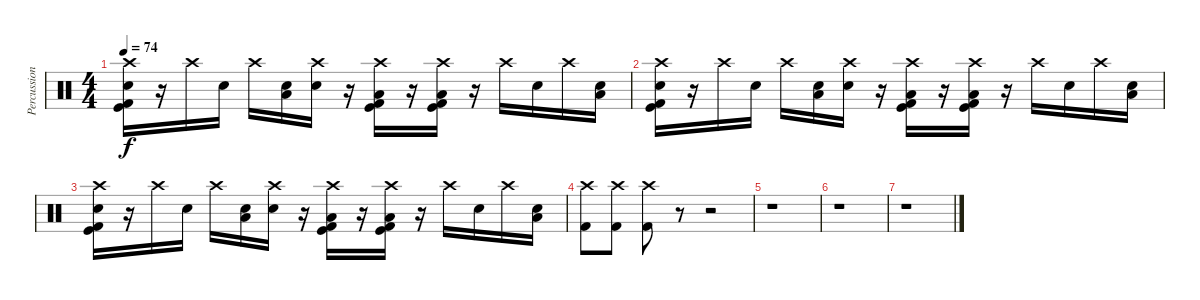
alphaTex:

\track ("Percussions" "Percussion") {instrument percussion}
\staff {score}
\articulation defaults
\ts (4 4)
\tempo 74
\clef neutral
\ks c
("Crash high (hit)" "Snare (hit) 2" "Kick (hit) 2" "Kick (hit)").16{dy f} r.16 "Crash high (hit)".16 "Electric Snare (hit)".16 "Crash high (hit)".16 ("Low Tom (hit)" "Snare (hit) 2").16 ("Crash high (hit)" "Electric Snare (hit)").16 r.16 ("Crash high (hit)" "Kick (hit)" "Low Tom (hit)" "Kick (hit) 2").16 r.16 ("Crash high (hit)" "Kick (hit)" "Low Tom (hit)" "Kick (hit) 2").16 r.16 "Crash high (hit)".16 "Electric Snare (hit)".16 "Crash high (hit)".16 ("Low Tom (hit)" "Snare (hit) 2").16 |
("Crash high (hit)" "Snare (hit) 2" "Kick (hit) 2" "Kick (hit)").16 r.16 "Crash high (hit)".16 "Electric Snare (hit)".16 "Crash high (hit)".16 ("Low Tom (hit)" "Snare (hit) 2").16 ("Crash high (hit)" "Electric Snare (hit)").16 r.16 ("Crash high (hit)" "Kick (hit)" "Low Tom (hit)" "Kick (hit) 2").16 r.16 ("Crash high (hit)" "Kick (hit)" "Low Tom (hit)" "Kick (hit) 2").16 r.16 "Crash high (hit)".16 "Electric Snare (hit)".16 "Crash high (hit)".16 ("Low Tom (hit)" "Snare (hit) 2").16 |
("Crash high (hit)" "Snare (hit) 2" "Kick (hit) 2" "Kick (hit)").16 r.16 "Crash high (hit)".16 "Electric Snare (hit)".16 "Crash high (hit)".16 ("Low Tom (hit)" "Snare (hit) 2").16 ("Crash high (hit)" "Electric Snare (hit)").16 r.16 ("Crash high (hit)" "Kick (hit)" "Low Tom (hit)" "Kick (hit) 2").16 r.16 ("Crash high (hit)" "Kick (hit)" "Low Tom (hit)" "Kick (hit) 2").16 r.16 "Crash high (hit)".16 "Electric Snare (hit)".16 "Crash high (hit)".16 ("Low Tom (hit)" "Snare (hit) 2").16 |
("Crash high (hit)" "Kick (hit) 2").8 ("Crash high (hit)" "Kick (hit) 2").8 ("Crash high (hit)" "Kick (hit) 2").8 r.8 r.2 |
r.1 |
r.1 |
r.1
